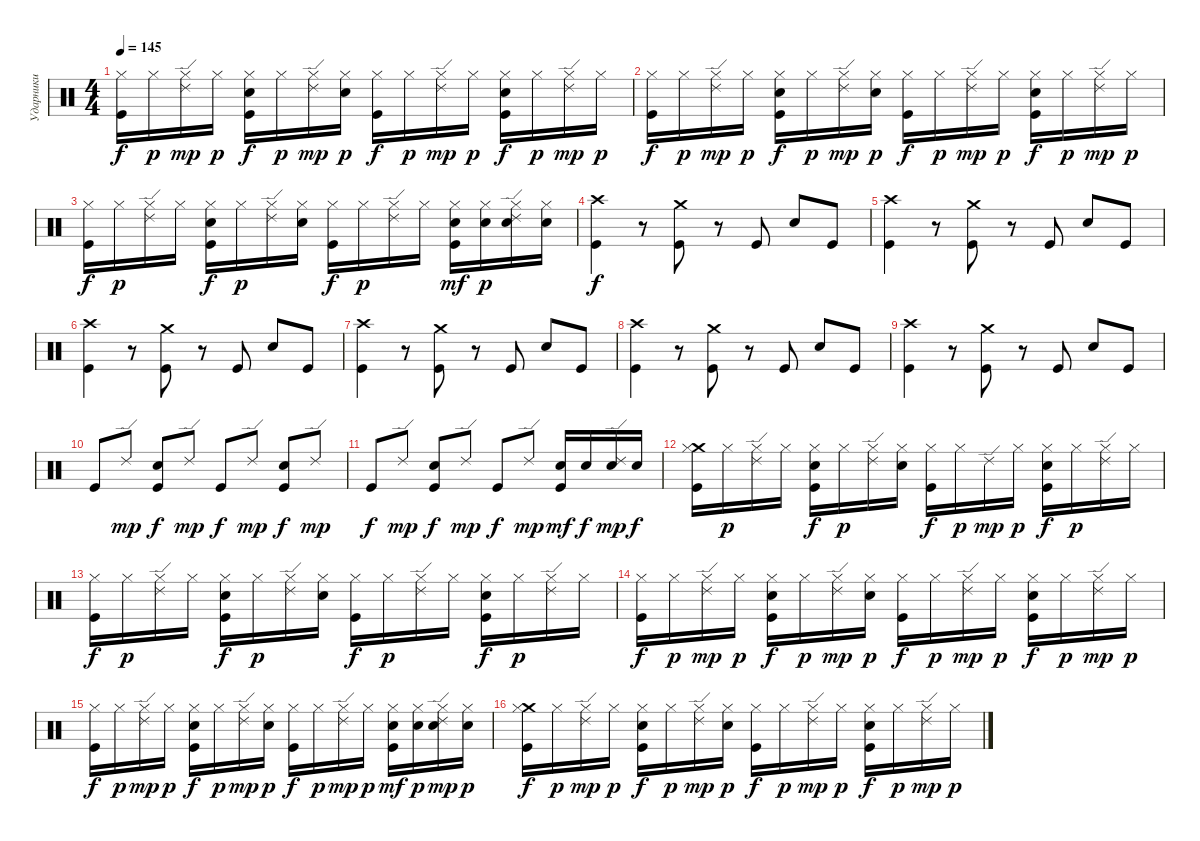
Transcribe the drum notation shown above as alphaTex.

\track ("Ударники" "Ударники") {instrument percussion}
\staff {score}
\articulation defaults
\ts (4 4)
\tempo 145
\clef neutral
\ks c
("Kick (hit)" "Hi-Hat (closed)").16{dy f} "Hi-Hat (closed)".16{dy p} ("Hi-Hat (closed)" "Ride (edge) 2").16{dy mp} "Hi-Hat (closed)".16{dy p} ("Electric Snare (hit)" "Kick (hit)" "Hi-Hat (closed)").16{dy f} "Hi-Hat (closed)".16{dy p} ("Hi-Hat (closed)" "Ride (edge) 2").16{dy mp} ("Electric Snare (hit)" "Hi-Hat (closed)").16{dy p} ("Kick (hit)" "Hi-Hat (closed)").16{dy f} "Hi-Hat (closed)".16{dy p} ("Hi-Hat (closed)" "Ride (edge) 2").16{dy mp} "Hi-Hat (closed)".16{dy p} ("Electric Snare (hit)" "Kick (hit)" "Hi-Hat (closed)").16{dy f} "Hi-Hat (closed)".16{dy p} ("Hi-Hat (closed)" "Ride (edge) 2").16{dy mp} "Hi-Hat (closed)".16{dy p} |
("Kick (hit)" "Hi-Hat (closed)").16{dy f} "Hi-Hat (closed)".16{dy p} ("Hi-Hat (closed)" "Ride (edge) 2").16{dy mp} "Hi-Hat (closed)".16{dy p} ("Electric Snare (hit)" "Kick (hit)" "Hi-Hat (closed)").16{dy f} "Hi-Hat (closed)".16{dy p} ("Hi-Hat (closed)" "Ride (edge) 2").16{dy mp} ("Electric Snare (hit)" "Hi-Hat (closed)").16{dy p} ("Kick (hit)" "Hi-Hat (closed)").16{dy f} "Hi-Hat (closed)".16{dy p} ("Hi-Hat (closed)" "Ride (edge) 2").16{dy mp} "Hi-Hat (closed)".16{dy p} ("Electric Snare (hit)" "Kick (hit)" "Hi-Hat (closed)").16{dy f} "Hi-Hat (closed)".16{dy p} ("Hi-Hat (closed)" "Ride (edge) 2").16{dy mp} "Hi-Hat (closed)".16{dy p} |
("Kick (hit)" "Hi-Hat (closed)").16{dy f} "Hi-Hat (closed)".16{dy p} ("Ride (edge) 2" "Hi-Hat (closed)").16 "Hi-Hat (closed)".16 ("Electric Snare (hit)" "Kick (hit)" "Hi-Hat (closed)").16{dy f} "Hi-Hat (closed)".16{dy p} ("Ride (edge) 2" "Hi-Hat (closed)").16 ("Electric Snare (hit)" "Hi-Hat (closed)").16 ("Kick (hit)" "Hi-Hat (closed)").16{dy f} "Hi-Hat (closed)".16{dy p} ("Ride (edge) 2" "Hi-Hat (closed)").16 "Hi-Hat (closed)".16 ("Electric Snare (hit)" "Kick (hit)" "Hi-Hat (closed)").16{dy mf} ("Electric Snare (hit)" "Hi-Hat (closed)").16{dy p} ("Electric Snare (hit)" "Ride (edge) 2" "Hi-Hat (closed)").16 ("Electric Snare (hit)" "Hi-Hat (closed)").16 |
("Crash high (hit)" "Kick (hit)").4{dy f} r.8 ("Crash medium (hit)" "Kick (hit)").8 r.8 "Kick (hit)".8 "Electric Snare (hit)".8 "Kick (hit)".8 |
("Crash high (hit)" "Kick (hit)").4 r.8 ("Crash medium (hit)" "Kick (hit)").8 r.8 "Kick (hit)".8 "Electric Snare (hit)".8 "Kick (hit)".8 |
("Crash high (hit)" "Kick (hit)").4 r.8 ("Crash medium (hit)" "Kick (hit)").8 r.8 "Kick (hit)".8 "Electric Snare (hit)".8 "Kick (hit)".8 |
("Crash high (hit)" "Kick (hit)").4 r.8 ("Crash medium (hit)" "Kick (hit)").8 r.8 "Kick (hit)".8 "Electric Snare (hit)".8 "Kick (hit)".8 |
("Crash high (hit)" "Kick (hit)").4 r.8 ("Crash medium (hit)" "Kick (hit)").8 r.8 "Kick (hit)".8 "Electric Snare (hit)".8 "Kick (hit)".8 |
("Crash high (hit)" "Kick (hit)").4 r.8 ("Crash medium (hit)" "Kick (hit)").8 r.8 "Kick (hit)".8 "Electric Snare (hit)".8 "Kick (hit)".8 |
"Kick (hit)".8 "Ride (edge) 2".8{dy mp} ("Electric Snare (hit)" "Kick (hit)").8{dy f} "Ride (edge) 2".8{dy mp} "Kick (hit)".8{dy f} "Ride (edge) 2".8{dy mp} ("Electric Snare (hit)" "Kick (hit)").8{dy f} "Ride (edge) 2".8{dy mp} |
"Kick (hit)".8{dy f} "Ride (edge) 2".8{dy mp} ("Electric Snare (hit)" "Kick (hit)").8{dy f} "Ride (edge) 2".8{dy mp} "Kick (hit)".8{dy f} "Ride (edge) 2".8{dy mp} ("Electric Snare (hit)" "Kick (hit)").16{dy mf} "Electric Snare (hit)".16{dy f} ("Electric Snare (hit)" "Ride (edge) 2").16{dy mp} "Electric Snare (hit)".16{dy f} |
("Crash medium (hit)" "Kick (hit)" "Hi-Hat (closed)").16 "Hi-Hat (closed)".16{dy p} ("Ride (edge) 2" "Hi-Hat (closed)").16 "Hi-Hat (closed)".16 ("Electric Snare (hit)" "Kick (hit)" "Hi-Hat (closed)").16{dy f} "Hi-Hat (closed)".16{dy p} ("Ride (edge) 2" "Hi-Hat (closed)").16 ("Electric Snare (hit)" "Hi-Hat (closed)").16 ("Kick (hit)" "Hi-Hat (closed)").16{dy f} "Hi-Hat (closed)".16{dy p} "Ride (edge) 2".16{dy mp} "Hi-Hat (closed)".16{dy p} ("Electric Snare (hit)" "Kick (hit)" "Hi-Hat (closed)").16{dy f} "Hi-Hat (closed)".16{dy p} ("Ride (edge) 2" "Hi-Hat (closed)").16 "Hi-Hat (closed)".16 |
("Kick (hit)" "Hi-Hat (closed)").16{dy f} "Hi-Hat (closed)".16{dy p} ("Ride (edge) 2" "Hi-Hat (closed)").16 "Hi-Hat (closed)".16 ("Electric Snare (hit)" "Kick (hit)" "Hi-Hat (closed)").16{dy f} "Hi-Hat (closed)".16{dy p} ("Ride (edge) 2" "Hi-Hat (closed)").16 ("Electric Snare (hit)" "Hi-Hat (closed)").16 ("Kick (hit)" "Hi-Hat (closed)").16{dy f} "Hi-Hat (closed)".16{dy p} ("Ride (edge) 2" "Hi-Hat (closed)").16 "Hi-Hat (closed)".16 ("Electric Snare (hit)" "Kick (hit)" "Hi-Hat (closed)").16{dy f} "Hi-Hat (closed)".16{dy p} ("Ride (edge) 2" "Hi-Hat (closed)").16 "Hi-Hat (closed)".16 |
("Kick (hit)" "Hi-Hat (closed)").16{dy f} "Hi-Hat (closed)".16{dy p} ("Hi-Hat (closed)" "Ride (edge) 2").16{dy mp} "Hi-Hat (closed)".16{dy p} ("Electric Snare (hit)" "Kick (hit)" "Hi-Hat (closed)").16{dy f} "Hi-Hat (closed)".16{dy p} ("Hi-Hat (closed)" "Ride (edge) 2").16{dy mp} ("Electric Snare (hit)" "Hi-Hat (closed)").16{dy p} ("Kick (hit)" "Hi-Hat (closed)").16{dy f} "Hi-Hat (closed)".16{dy p} ("Hi-Hat (closed)" "Ride (edge) 2").16{dy mp} "Hi-Hat (closed)".16{dy p} ("Electric Snare (hit)" "Kick (hit)" "Hi-Hat (closed)").16{dy f} "Hi-Hat (closed)".16{dy p} ("Hi-Hat (closed)" "Ride (edge) 2").16{dy mp} "Hi-Hat (closed)".16{dy p} |
("Kick (hit)" "Hi-Hat (closed)").16{dy f} "Hi-Hat (closed)".16{dy p} ("Hi-Hat (closed)" "Ride (edge) 2").16{dy mp} "Hi-Hat (closed)".16{dy p} ("Electric Snare (hit)" "Kick (hit)" "Hi-Hat (closed)").16{dy f} "Hi-Hat (closed)".16{dy p} ("Hi-Hat (closed)" "Ride (edge) 2").16{dy mp} ("Electric Snare (hit)" "Hi-Hat (closed)").16{dy p} ("Kick (hit)" "Hi-Hat (closed)").16{dy f} "Hi-Hat (closed)".16{dy p} ("Hi-Hat (closed)" "Ride (edge) 2").16{dy mp} "Hi-Hat (closed)".16{dy p} ("Electric Snare (hit)" "Kick (hit)" "Hi-Hat (closed)").16{dy mf} ("Electric Snare (hit)" "Hi-Hat (closed)").16{dy p} ("Electric Snare (hit)" "Hi-Hat (closed)" "Ride (edge) 2").16{dy mp} ("Electric Snare (hit)" "Hi-Hat (closed)").16{dy p} |
("Crash medium (hit)" "Kick (hit)" "Hi-Hat (closed)").16{dy f} "Hi-Hat (closed)".16{dy p} ("Hi-Hat (closed)" "Ride (edge) 2").16{dy mp} "Hi-Hat (closed)".16{dy p} ("Electric Snare (hit)" "Kick (hit)" "Hi-Hat (closed)").16{dy f} "Hi-Hat (closed)".16{dy p} ("Hi-Hat (closed)" "Ride (edge) 2").16{dy mp} ("Electric Snare (hit)" "Hi-Hat (closed)").16{dy p} ("Kick (hit)" "Hi-Hat (closed)").16{dy f} "Hi-Hat (closed)".16{dy p} ("Hi-Hat (closed)" "Ride (edge) 2").16{dy mp} "Hi-Hat (closed)".16{dy p} ("Electric Snare (hit)" "Kick (hit)" "Hi-Hat (closed)").16{dy f} "Hi-Hat (closed)".16{dy p} ("Hi-Hat (closed)" "Ride (edge) 2").16{dy mp} "Hi-Hat (closed)".16{dy p}
